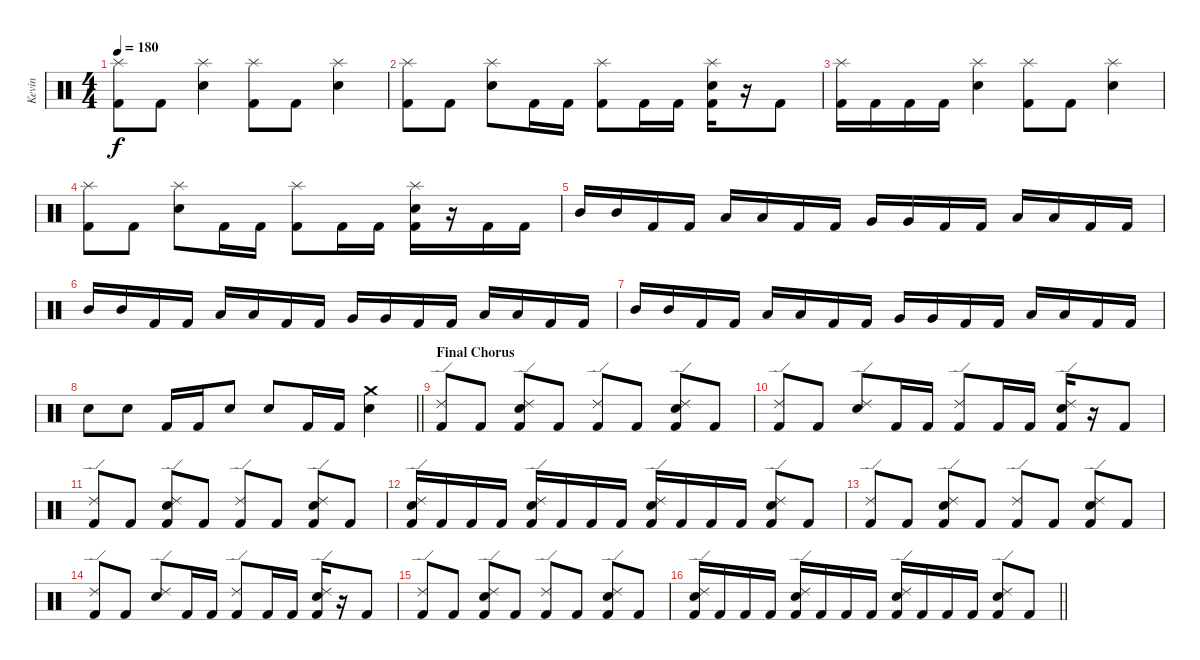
\track ("Kevin" "Kevin") {instrument percussion}
\staff {score}
\articulation defaults
\ts (4 4)
\tempo 180
\clef neutral
\ks c
("Splash (hit)" "Kick (hit) 2").8{dy f} "Kick (hit) 2".8 ("Splash (hit)" "Electric Snare (hit)").4 ("Splash (hit)" "Kick (hit) 2").8 "Kick (hit) 2".8 ("Splash (hit)" "Electric Snare (hit)").4 |
("Splash (hit)" "Kick (hit) 2").8 "Kick (hit) 2".8 ("Splash (hit)" "Electric Snare (hit)").8 "Kick (hit) 2".16 "Kick (hit) 2".16 ("Splash (hit)" "Kick (hit) 2").8 "Kick (hit) 2".16 "Kick (hit) 2".16 ("Splash (hit)" "Electric Snare (hit)" "Kick (hit) 2").16 r.16 "Kick (hit) 2".8 |
("Splash (hit)" "Kick (hit) 2").16 "Kick (hit) 2".16 "Kick (hit) 2".16 "Kick (hit) 2".16 ("Splash (hit)" "Electric Snare (hit)").4 ("Splash (hit)" "Kick (hit) 2").8 "Kick (hit) 2".8 ("Splash (hit)" "Electric Snare (hit)").4 |
("Splash (hit)" "Kick (hit) 2").8 "Kick (hit) 2".8 ("Splash (hit)" "Electric Snare (hit)").8 "Kick (hit) 2".16 "Kick (hit) 2".16 ("Splash (hit)" "Kick (hit) 2").8 "Kick (hit) 2".16 "Kick (hit) 2".16 ("Splash (hit)" "Electric Snare (hit)" "Kick (hit) 2").16 r.16 "Kick (hit) 2".16 "Kick (hit) 2".16 |
"Mid Tom (hit)".16 "Mid Tom (hit)".16 "Kick (hit) 2".16 "Kick (hit) 2".16 "Low Tom (hit)".16 "Low Tom (hit)".16 "Kick (hit) 2".16 "Kick (hit) 2".16 "Very Low Tom (hit)".16 "Very Low Tom (hit)".16 "Kick (hit) 2".16 "Kick (hit) 2".16 "Low Floor Tom (hit)".16 "Low Floor Tom (hit)".16 "Kick (hit) 2".16 "Kick (hit) 2".16 |
"Mid Tom (hit)".16 "Mid Tom (hit)".16 "Kick (hit) 2".16 "Kick (hit) 2".16 "Low Tom (hit)".16 "Low Tom (hit)".16 "Kick (hit) 2".16 "Kick (hit) 2".16 "Very Low Tom (hit)".16 "Very Low Tom (hit)".16 "Kick (hit) 2".16 "Kick (hit) 2".16 "Low Floor Tom (hit)".16 "Low Floor Tom (hit)".16 "Kick (hit) 2".16 "Kick (hit) 2".16 |
"Mid Tom (hit)".16 "Mid Tom (hit)".16 "Kick (hit) 2".16 "Kick (hit) 2".16 "Low Tom (hit)".16 "Low Tom (hit)".16 "Kick (hit) 2".16 "Kick (hit) 2".16 "Very Low Tom (hit)".16 "Very Low Tom (hit)".16 "Kick (hit) 2".16 "Kick (hit) 2".16 "Low Floor Tom (hit)".16 "Low Floor Tom (hit)".16 "Kick (hit) 2".16 "Kick (hit) 2".16 |
\barLineRight lightlight "Electric Snare (hit)".8 "Electric Snare (hit)".8 "Kick (hit) 2".16 "Kick (hit) 2".16 "Electric Snare (hit)".8 "Electric Snare (hit)".8 "Kick (hit) 2".16 "Kick (hit) 2".16
("Crash medium (hit)" "Electric Snare (hit)").4 |
\section ("" "Final Chorus")
("Ride (edge) 2" "Kick (hit) 2").8 "Kick (hit) 2".8 ("Ride (edge) 2" "Electric Snare (hit)" "Kick (hit) 2").8 "Kick (hit) 2".8 ("Ride (edge) 2" "Kick (hit) 2").8 "Kick (hit) 2".8 ("Ride (edge) 2" "Electric Snare (hit)" "Kick (hit) 2").8 "Kick (hit) 2".8 |
("Ride (edge) 2" "Kick (hit) 2").8 "Kick (hit) 2".8 ("Ride (edge) 2" "Electric Snare (hit)").8 "Kick (hit) 2".16 "Kick (hit) 2".16 ("Ride (edge) 2" "Kick (hit) 2").8 "Kick (hit) 2".16 "Kick (hit) 2".16 ("Ride (edge) 2" "Electric Snare (hit)" "Kick (hit) 2").16 r.16 "Kick (hit) 2".8 |
("Ride (edge) 2" "Kick (hit) 2").8 "Kick (hit) 2".8 ("Ride (edge) 2" "Electric Snare (hit)" "Kick (hit) 2").8 "Kick (hit) 2".8 ("Ride (edge) 2" "Kick (hit) 2").8 "Kick (hit) 2".8 ("Ride (edge) 2" "Electric Snare (hit)" "Kick (hit) 2").8 "Kick (hit) 2".8 |
("Ride (edge) 2" "Electric Snare (hit)" "Kick (hit) 2").16 "Kick (hit) 2".16 "Kick (hit) 2".16 "Kick (hit) 2".16 ("Ride (edge) 2" "Electric Snare (hit)" "Kick (hit) 2").16 "Kick (hit) 2".16 "Kick (hit) 2".16 "Kick (hit) 2".16 ("Ride (edge) 2" "Electric Snare (hit)" "Kick (hit) 2").16 "Kick (hit) 2".16 "Kick (hit) 2".16 "Kick (hit) 2".16 ("Ride (edge) 2" "Electric Snare (hit)" "Kick (hit) 2").8 "Kick (hit) 2".8 |
("Ride (edge) 2" "Kick (hit) 2").8 "Kick (hit) 2".8 ("Ride (edge) 2" "Electric Snare (hit)" "Kick (hit) 2").8 "Kick (hit) 2".8 ("Ride (edge) 2" "Kick (hit) 2").8 "Kick (hit) 2".8 ("Ride (edge) 2" "Electric Snare (hit)" "Kick (hit) 2").8 "Kick (hit) 2".8 |
("Ride (edge) 2" "Kick (hit) 2").8 "Kick (hit) 2".8 ("Ride (edge) 2" "Electric Snare (hit)").8 "Kick (hit) 2".16 "Kick (hit) 2".16 ("Ride (edge) 2" "Kick (hit) 2").8 "Kick (hit) 2".16 "Kick (hit) 2".16 ("Ride (edge) 2" "Electric Snare (hit)" "Kick (hit) 2").16 r.16 "Kick (hit) 2".8 |
("Ride (edge) 2" "Kick (hit) 2").8 "Kick (hit) 2".8 ("Ride (edge) 2" "Electric Snare (hit)" "Kick (hit) 2").8 "Kick (hit) 2".8 ("Ride (edge) 2" "Kick (hit) 2").8 "Kick (hit) 2".8 ("Ride (edge) 2" "Electric Snare (hit)" "Kick (hit) 2").8 "Kick (hit) 2".8 |
\barLineRight lightlight
("Ride (edge) 2" "Electric Snare (hit)" "Kick (hit) 2").16 "Kick (hit) 2".16 "Kick (hit) 2".16 "Kick (hit) 2".16 ("Ride (edge) 2" "Electric Snare (hit)" "Kick (hit) 2").16 "Kick (hit) 2".16 "Kick (hit) 2".16 "Kick (hit) 2".16 ("Ride (edge) 2" "Electric Snare (hit)" "Kick (hit) 2").16 "Kick (hit) 2".16 "Kick (hit) 2".16 "Kick (hit) 2".16 ("Ride (edge) 2" "Electric Snare (hit)" "Kick (hit) 2").8 "Kick (hit) 2".8
